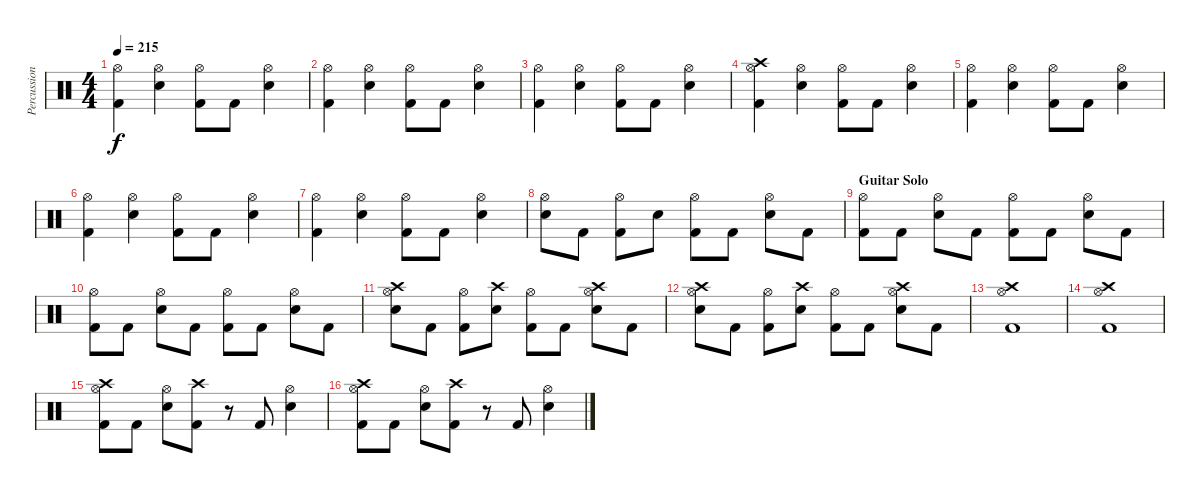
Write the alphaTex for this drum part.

\track ("Percussions" "Percussion") {instrument percussion}
\staff {score}
\articulation defaults
\ts (4 4)
\tempo 215
\clef neutral
\ks c
("Hi-Hat (open)" "Kick (hit) 2").4{dy f} ("Hi-Hat (open)" "Electric Snare (hit)").4 ("Hi-Hat (open)" "Kick (hit) 2").8 "Kick (hit) 2".8 ("Hi-Hat (open)" "Electric Snare (hit)").4 |
("Hi-Hat (open)" "Kick (hit) 2").4 ("Hi-Hat (open)" "Electric Snare (hit)").4 ("Hi-Hat (open)" "Kick (hit) 2").8 "Kick (hit) 2".8 ("Hi-Hat (open)" "Electric Snare (hit)").4 |
("Hi-Hat (open)" "Kick (hit) 2").4 ("Hi-Hat (open)" "Electric Snare (hit)").4 ("Hi-Hat (open)" "Kick (hit) 2").8 "Kick (hit) 2".8 ("Hi-Hat (open)" "Electric Snare (hit)").4 |
("Crash high (hit)" "Hi-Hat (open)" "Kick (hit) 2").4 ("Hi-Hat (open)" "Electric Snare (hit)").4 ("Hi-Hat (open)" "Kick (hit) 2").8 "Kick (hit) 2".8 ("Hi-Hat (open)" "Electric Snare (hit)").4 |
("Hi-Hat (open)" "Kick (hit) 2").4 ("Hi-Hat (open)" "Electric Snare (hit)").4 ("Hi-Hat (open)" "Kick (hit) 2").8 "Kick (hit) 2".8 ("Hi-Hat (open)" "Electric Snare (hit)").4 |
("Hi-Hat (open)" "Kick (hit) 2").4 ("Hi-Hat (open)" "Electric Snare (hit)").4 ("Hi-Hat (open)" "Kick (hit) 2").8 "Kick (hit) 2".8 ("Hi-Hat (open)" "Electric Snare (hit)").4 |
("Hi-Hat (open)" "Kick (hit) 2").4 ("Hi-Hat (open)" "Electric Snare (hit)").4 ("Hi-Hat (open)" "Kick (hit) 2").8 "Kick (hit) 2".8 ("Hi-Hat (open)" "Electric Snare (hit)").4 |
("Hi-Hat (open)" "Electric Snare (hit)").8 "Kick (hit) 2".8 ("Hi-Hat (open)" "Kick (hit) 2").8 "Electric Snare (hit)".8 ("Hi-Hat (open)" "Kick (hit) 2").8 "Kick (hit) 2".8 ("Hi-Hat (open)" "Electric Snare (hit)").8 "Kick (hit) 2".8 |
\section ("" "Guitar Solo")
("Hi-Hat (open)" "Kick (hit) 2").8 "Kick (hit) 2".8 ("Hi-Hat (open)" "Electric Snare (hit)").8 "Kick (hit) 2".8 ("Hi-Hat (open)" "Kick (hit) 2").8 "Kick (hit) 2".8 ("Hi-Hat (open)" "Electric Snare (hit)").8 "Kick (hit) 2".8 |
("Hi-Hat (open)" "Kick (hit) 2").8 "Kick (hit) 2".8 ("Hi-Hat (open)" "Electric Snare (hit)").8 "Kick (hit) 2".8 ("Hi-Hat (open)" "Kick (hit) 2").8 "Kick (hit) 2".8 ("Hi-Hat (open)" "Electric Snare (hit)").8 "Kick (hit) 2".8 |
("Crash high (hit)" "Hi-Hat (open)" "Electric Snare (hit)").8 "Kick (hit) 2".8 ("Hi-Hat (open)" "Kick (hit) 2").8 ("Crash high (hit)" "Electric Snare (hit)").8 ("Hi-Hat (open)" "Kick (hit) 2").8 "Kick (hit) 2".8 ("Crash high (hit)" "Hi-Hat (open)" "Electric Snare (hit)").8 "Kick (hit) 2".8 |
("Crash high (hit)" "Hi-Hat (open)" "Electric Snare (hit)").8 "Kick (hit) 2".8 ("Hi-Hat (open)" "Kick (hit) 2").8 ("Crash high (hit)" "Electric Snare (hit)").8 ("Hi-Hat (open)" "Kick (hit) 2").8 "Kick (hit) 2".8 ("Crash high (hit)" "Hi-Hat (open)" "Electric Snare (hit)").8 "Kick (hit) 2".8 |
("Crash high (hit)" "Hi-Hat (open)" "Kick (hit) 2").1 |
("Crash high (hit)" "Hi-Hat (open)" "Kick (hit) 2").1 |
("Crash high (hit)" "Hi-Hat (open)" "Kick (hit) 2").8 "Kick (hit) 2".8 ("Hi-Hat (open)" "Electric Snare (hit)").8 ("Crash high (hit)" "Kick (hit) 2").8 r.8 "Kick (hit) 2".8 ("Hi-Hat (open)" "Electric Snare (hit)").4 |
("Crash high (hit)" "Hi-Hat (open)" "Kick (hit) 2").8 "Kick (hit) 2".8 ("Hi-Hat (open)" "Electric Snare (hit)").8 ("Crash high (hit)" "Kick (hit) 2").8 r.8 "Kick (hit) 2".8 ("Hi-Hat (open)" "Electric Snare (hit)").4
